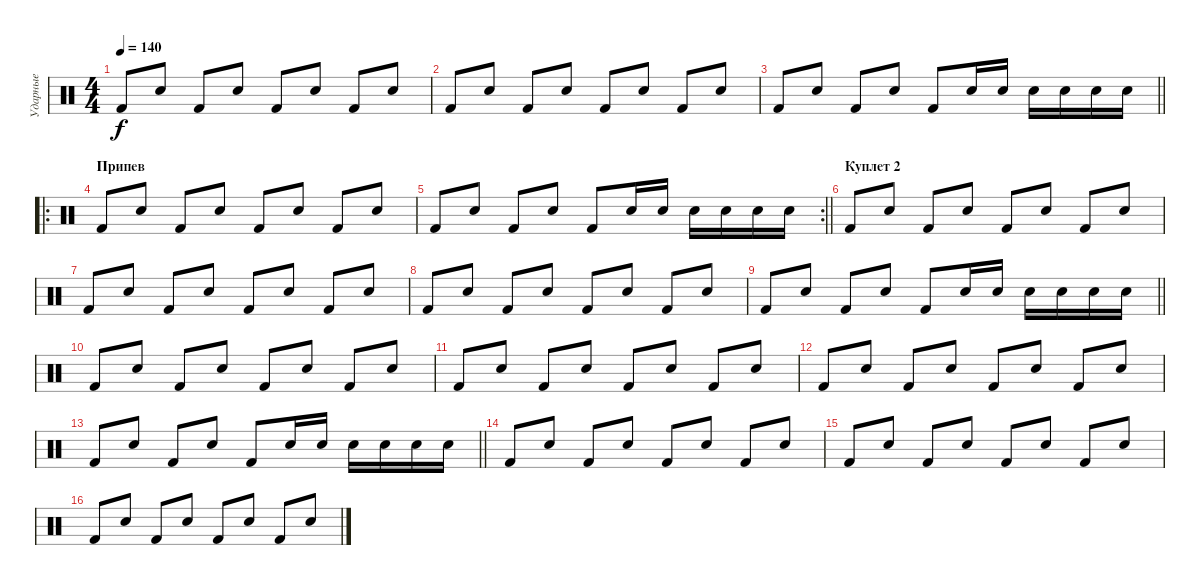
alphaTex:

\track ("Ударные" "Ударные") {instrument percussion}
\staff {score}
\articulation defaults
\ts (4 4)
\tempo 140
\clef neutral
\ks c "Kick (hit) 2".8{dy f} "Electric Snare (hit)".8 "Kick (hit) 2".8 "Electric Snare (hit)".8 "Kick (hit) 2".8 "Electric Snare (hit)".8 "Kick (hit) 2".8 "Electric Snare (hit)".8
|
"Kick (hit) 2".8 "Electric Snare (hit)".8 "Kick (hit) 2".8 "Electric Snare (hit)".8 "Kick (hit) 2".8 "Electric Snare (hit)".8 "Kick (hit) 2".8 "Electric Snare (hit)".8 |
\barLineRight lightlight "Kick (hit) 2".8 "Electric Snare (hit)".8 "Kick (hit) 2".8 "Electric Snare (hit)".8 "Kick (hit) 2".8 "Electric Snare (hit)".16 "Electric Snare (hit)".16 "Electric Snare (hit)".16 "Electric Snare (hit)".16 "Electric Snare (hit)".16 "Electric Snare (hit)".16
|
\ro
\section ("" "Припев")
"Kick (hit) 2".8 "Electric Snare (hit)".8 "Kick (hit) 2".8 "Electric Snare (hit)".8 "Kick (hit) 2".8 "Electric Snare (hit)".8 "Kick (hit) 2".8 "Electric Snare (hit)".8 |
\rc 2
\barLineRight lightlight "Kick (hit) 2".8 "Electric Snare (hit)".8 "Kick (hit) 2".8 "Electric Snare (hit)".8 "Kick (hit) 2".8 "Electric Snare (hit)".16 "Electric Snare (hit)".16 "Electric Snare (hit)".16 "Electric Snare (hit)".16 "Electric Snare (hit)".16 "Electric Snare (hit)".16
|
\section ("" "Куплет 2")
"Kick (hit) 2".8 "Electric Snare (hit)".8 "Kick (hit) 2".8 "Electric Snare (hit)".8 "Kick (hit) 2".8 "Electric Snare (hit)".8 "Kick (hit) 2".8 "Electric Snare (hit)".8 |
"Kick (hit) 2".8 "Electric Snare (hit)".8 "Kick (hit) 2".8 "Electric Snare (hit)".8 "Kick (hit) 2".8 "Electric Snare (hit)".8 "Kick (hit) 2".8 "Electric Snare (hit)".8 |
"Kick (hit) 2".8 "Electric Snare (hit)".8 "Kick (hit) 2".8 "Electric Snare (hit)".8 "Kick (hit) 2".8 "Electric Snare (hit)".8 "Kick (hit) 2".8 "Electric Snare (hit)".8 |
\barLineRight lightlight "Kick (hit) 2".8 "Electric Snare (hit)".8 "Kick (hit) 2".8 "Electric Snare (hit)".8 "Kick (hit) 2".8 "Electric Snare (hit)".16 "Electric Snare (hit)".16 "Electric Snare (hit)".16 "Electric Snare (hit)".16 "Electric Snare (hit)".16 "Electric Snare (hit)".16
|
"Kick (hit) 2".8 "Electric Snare (hit)".8 "Kick (hit) 2".8 "Electric Snare (hit)".8 "Kick (hit) 2".8 "Electric Snare (hit)".8 "Kick (hit) 2".8 "Electric Snare (hit)".8 |
"Kick (hit) 2".8 "Electric Snare (hit)".8 "Kick (hit) 2".8 "Electric Snare (hit)".8 "Kick (hit) 2".8 "Electric Snare (hit)".8 "Kick (hit) 2".8 "Electric Snare (hit)".8 |
"Kick (hit) 2".8 "Electric Snare (hit)".8 "Kick (hit) 2".8 "Electric Snare (hit)".8 "Kick (hit) 2".8 "Electric Snare (hit)".8 "Kick (hit) 2".8 "Electric Snare (hit)".8 |
\barLineRight lightlight "Kick (hit) 2".8 "Electric Snare (hit)".8 "Kick (hit) 2".8 "Electric Snare (hit)".8 "Kick (hit) 2".8 "Electric Snare (hit)".16 "Electric Snare (hit)".16 "Electric Snare (hit)".16 "Electric Snare (hit)".16 "Electric Snare (hit)".16 "Electric Snare (hit)".16
|
"Kick (hit) 2".8 "Electric Snare (hit)".8 "Kick (hit) 2".8 "Electric Snare (hit)".8 "Kick (hit) 2".8 "Electric Snare (hit)".8 "Kick (hit) 2".8 "Electric Snare (hit)".8 |
"Kick (hit) 2".8 "Electric Snare (hit)".8 "Kick (hit) 2".8 "Electric Snare (hit)".8 "Kick (hit) 2".8 "Electric Snare (hit)".8 "Kick (hit) 2".8 "Electric Snare (hit)".8 |
"Kick (hit) 2".8 "Electric Snare (hit)".8 "Kick (hit) 2".8 "Electric Snare (hit)".8 "Kick (hit) 2".8 "Electric Snare (hit)".8 "Kick (hit) 2".8 "Electric Snare (hit)".8
